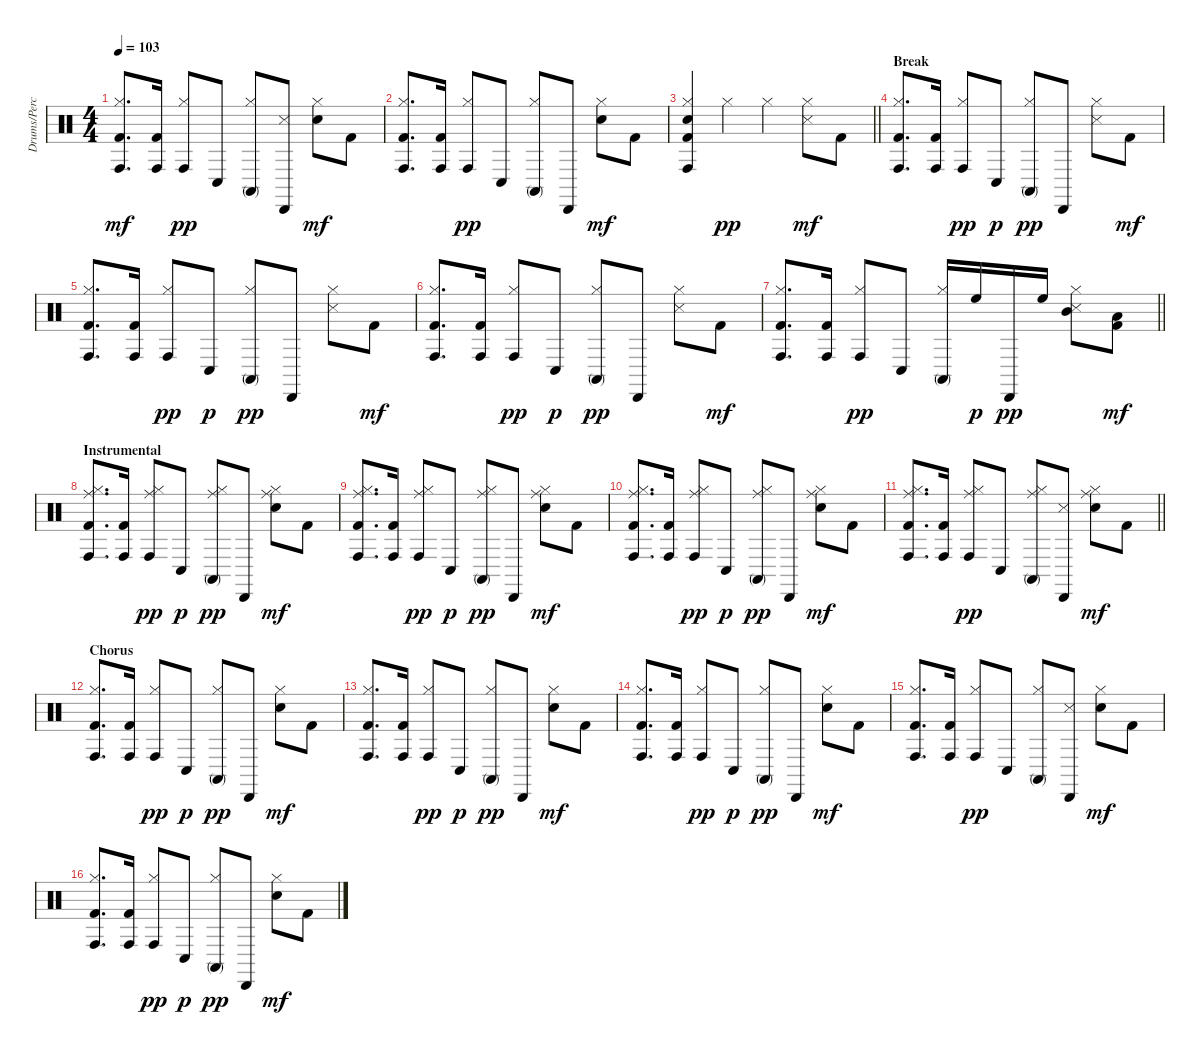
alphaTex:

\track ("Drums/Perc." "Drums/Perc") {instrument percussion}
\staff {score}
\articulation defaults
\ts (4 4)
\tempo 103
\clef neutral
\ks c
("Conga high (hit)" "Hi-Hat (closed)" "Kick (hit) 2").8{d dy mf} ("Conga high (hit)" "Kick (hit) 2").16 ("Conga high (hit)" "Hi-Hat (closed)").8{dy pp} "Conga low (hit)".8 ("Conga high (mute)" "Hi-Hat (closed)").8 ("Cabasa (hit)" "Snare (side stick) 3").8 ("Hi-Hat (closed)" "Snare (hit) 2").8{dy mf} "Kick (hit) 2".8 |
("Conga high (hit)" "Hi-Hat (closed)" "Kick (hit) 2").8{d} ("Conga high (hit)" "Kick (hit) 2").16 ("Conga high (hit)" "Hi-Hat (closed)").8{dy pp} "Conga low (hit)".8 ("Conga high (mute)" "Hi-Hat (closed)").8 "Cabasa (hit)".8 ("Hi-Hat (closed)" "Snare (hit) 2").8{dy mf} "Kick (hit) 2".8 |
\barLineRight lightlight
("Conga high (hit)" "Hi-Hat (closed)" "Snare (hit) 2" "Kick (hit) 2").4 "Hi-Hat (closed)".4{dy pp} "Hi-Hat (closed)".4 ("Hi-Hat (closed)" "Snare (side stick) 3").8{dy mf} "Kick (hit) 2".8 |
\section ("" "Break")
("Conga high (hit)" "Hi-Hat (closed)" "Kick (hit) 2").8{d} ("Conga high (hit)" "Kick (hit) 2").16 ("Conga high (hit)" "Hi-Hat (closed)").8{dy pp} "Conga low (hit)".8{dy p} ("Conga high (mute)" "Hi-Hat (closed)").8{dy pp} "Cabasa (hit)".8 ("Hi-Hat (closed)" "Snare (side stick) 3").8 "Kick (hit) 2".8{dy mf} |
("Conga high (hit)" "Hi-Hat (closed)" "Kick (hit) 2").8{d} ("Conga high (hit)" "Kick (hit) 2").16 ("Conga high (hit)" "Hi-Hat (closed)").8{dy pp} "Conga low (hit)".8{dy p} ("Conga high (mute)" "Hi-Hat (closed)").8{dy pp} "Cabasa (hit)".8 ("Hi-Hat (closed)" "Snare (side stick) 3").8 "Kick (hit) 2".8{dy mf} |
("Conga high (hit)" "Hi-Hat (closed)" "Kick (hit) 2").8{d} ("Conga high (hit)" "Kick (hit) 2").16 ("Conga high (hit)" "Hi-Hat (closed)").8{dy pp} "Conga low (hit)".8{dy p} ("Conga high (mute)" "Hi-Hat (closed)").8{dy pp} "Cabasa (hit)".8 ("Hi-Hat (closed)" "Snare (side stick) 3").8 "Kick (hit) 2".8{dy mf} |
\barLineRight lightlight
("Conga high (hit)" "Hi-Hat (closed)" "Kick (hit) 2").8{d} ("Conga high (hit)" "Kick (hit) 2").16 ("Conga high (hit)" "Hi-Hat (closed)").8{dy pp} "Conga low (hit)".8 ("Conga high (mute)" "Hi-Hat (closed)").16 "High Floor Tom (hit)".16{dy p} "Cabasa (hit)".16{dy pp} "High Floor Tom (hit)".16 ("Mid Tom (hit)" "Hi-Hat (closed)" "Snare (side stick) 3").8 ("Low Floor Tom (hit)" "Kick (hit) 2").8{dy mf} |
\section ("" "Instrumental")
("Conga high (hit)" "Ride (middle)" "Hi-Hat (closed)" "Kick (hit) 2").8{d} ("Conga high (hit)" "Kick (hit) 2").16 ("Conga high (hit)" "Ride (middle)" "Hi-Hat (closed)").8{dy pp} "Conga low (hit)".8{dy p} ("Conga high (mute)" "Ride (middle)" "Hi-Hat (closed)").8{dy pp} "Cabasa (hit)".8 ("Ride (middle)" "Hi-Hat (closed)" "Snare (hit) 2").8{dy mf} "Kick (hit) 2".8 |
("Conga high (hit)" "Ride (middle)" "Hi-Hat (closed)" "Kick (hit) 2").8{d} ("Conga high (hit)" "Kick (hit) 2").16 ("Conga high (hit)" "Ride (middle)" "Hi-Hat (closed)").8{dy pp} "Conga low (hit)".8{dy p} ("Conga high (mute)" "Ride (middle)" "Hi-Hat (closed)").8{dy pp} "Cabasa (hit)".8 ("Ride (middle)" "Hi-Hat (closed)" "Snare (hit) 2").8{dy mf} "Kick (hit) 2".8 |
("Conga high (hit)" "Ride (middle)" "Hi-Hat (closed)" "Kick (hit) 2").8{d} ("Conga high (hit)" "Kick (hit) 2").16 ("Conga high (hit)" "Ride (middle)" "Hi-Hat (closed)").8{dy pp} "Conga low (hit)".8{dy p} ("Conga high (mute)" "Ride (middle)" "Hi-Hat (closed)").8{dy pp} "Cabasa (hit)".8 ("Ride (middle)" "Hi-Hat (closed)" "Snare (hit) 2").8{dy mf} "Kick (hit) 2".8 |
\barLineRight lightlight
("Conga high (hit)" "Ride (middle)" "Hi-Hat (closed)" "Kick (hit) 2").8{d} ("Conga high (hit)" "Kick (hit) 2").16 ("Conga high (hit)" "Ride (middle)" "Hi-Hat (closed)").8{dy pp} "Conga low (hit)".8 ("Conga high (mute)" "Ride (middle)" "Hi-Hat (closed)").8 ("Cabasa (hit)" "Snare (side stick) 3").8 ("Ride (middle)" "Hi-Hat (closed)" "Snare (hit) 2").8{dy mf} "Kick (hit) 2".8 |
\section ("" "Chorus")
("Conga high (hit)" "Hi-Hat (closed)" "Kick (hit) 2").8{d} ("Conga high (hit)" "Kick (hit) 2").16 ("Conga high (hit)" "Hi-Hat (closed)").8{dy pp} "Conga low (hit)".8{dy p} ("Conga high (mute)" "Hi-Hat (closed)").8{dy pp} "Cabasa (hit)".8 ("Hi-Hat (closed)" "Snare (hit) 2").8{dy mf} "Kick (hit) 2".8 |
("Conga high (hit)" "Hi-Hat (closed)" "Kick (hit) 2").8{d} ("Conga high (hit)" "Kick (hit) 2").16 ("Conga high (hit)" "Hi-Hat (closed)").8{dy pp} "Conga low (hit)".8{dy p} ("Conga high (mute)" "Hi-Hat (closed)").8{dy pp} "Cabasa (hit)".8 ("Hi-Hat (closed)" "Snare (hit) 2").8{dy mf} "Kick (hit) 2".8 |
("Conga high (hit)" "Hi-Hat (closed)" "Kick (hit) 2").8{d} ("Conga high (hit)" "Kick (hit) 2").16 ("Conga high (hit)" "Hi-Hat (closed)").8{dy pp} "Conga low (hit)".8{dy p} ("Conga high (mute)" "Hi-Hat (closed)").8{dy pp} "Cabasa (hit)".8 ("Hi-Hat (closed)" "Snare (hit) 2").8{dy mf} "Kick (hit) 2".8 |
("Conga high (hit)" "Hi-Hat (closed)" "Kick (hit) 2").8{d} ("Conga high (hit)" "Kick (hit) 2").16 ("Conga high (hit)" "Hi-Hat (closed)").8{dy pp} "Conga low (hit)".8 ("Conga high (mute)" "Hi-Hat (closed)").8 ("Cabasa (hit)" "Snare (side stick) 3").8 ("Hi-Hat (closed)" "Snare (hit) 2").8{dy mf} "Kick (hit) 2".8 |
("Conga high (hit)" "Hi-Hat (closed)" "Kick (hit) 2").8{d} ("Conga high (hit)" "Kick (hit) 2").16 ("Conga high (hit)" "Hi-Hat (closed)").8{dy pp} "Conga low (hit)".8{dy p} ("Conga high (mute)" "Hi-Hat (closed)").8{dy pp} "Cabasa (hit)".8 ("Hi-Hat (closed)" "Snare (hit) 2").8{dy mf} "Kick (hit) 2".8
